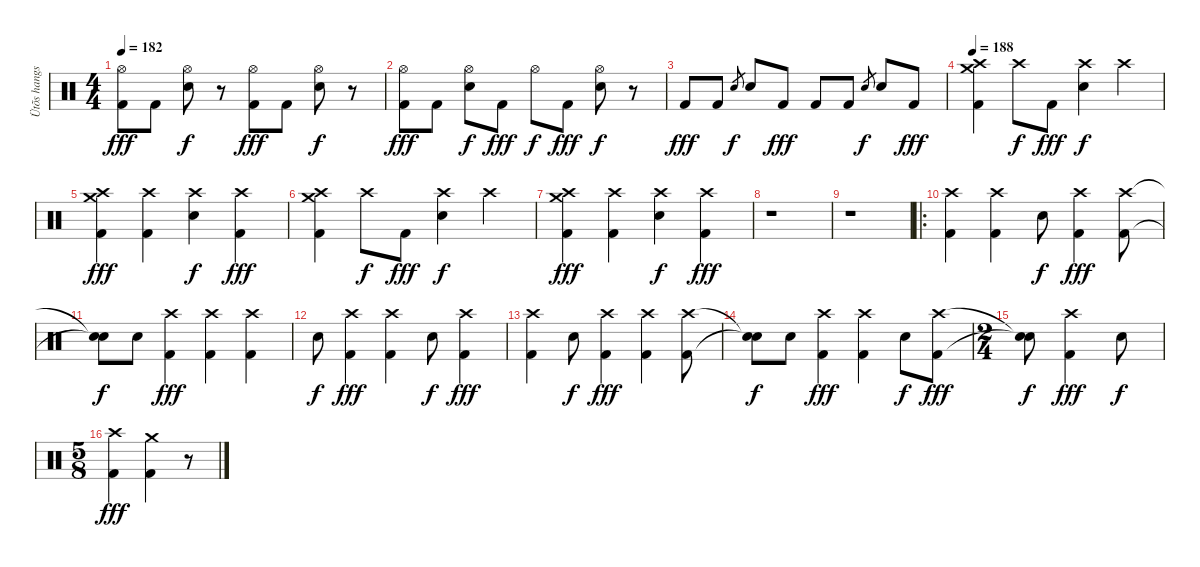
\track ("Ütõs hangszer" "Ütõs hangs") {instrument percussion}
\staff {score}
\articulation defaults
\ts (4 4)
\tempo 182
\clef neutral
\ks c
("Hi-Hat (open)" "Kick (hit) 2").8{dy fff} "Kick (hit) 2".8 ("Hi-Hat (open)" "Electric Snare (hit)").8{dy f} r.8 ("Hi-Hat (open)" "Kick (hit) 2").8{dy fff} "Kick (hit) 2".8 ("Hi-Hat (open)" "Electric Snare (hit)").8{dy f} r.8 |
("Hi-Hat (open)" "Kick (hit) 2").8{dy fff} "Kick (hit) 2".8 ("Hi-Hat (open)" "Electric Snare (hit)").8{dy f} "Kick (hit) 2".8{dy fff} "Hi-Hat (open)".8{dy f} "Kick (hit) 2".8{dy fff} ("Hi-Hat (open)" "Electric Snare (hit)").8{dy f} r.8 |
"Kick (hit) 2".8{dy fff} "Kick (hit) 2".8 "Electric Snare (hit)".8{gr dy f} "Electric Snare (hit)".8 "Kick (hit) 2".8{dy fff} "Kick (hit) 2".8 "Kick (hit) 2".8 "Electric Snare (hit)".8{gr dy f} "Electric Snare (hit)".8 "Kick (hit) 2".8{dy fff} |
\tempo 188
("Crash high (hit)" "Crash medium (hit)" "Kick (hit) 2").4 "Crash high (hit)".8{dy f} "Kick (hit) 2".8{dy fff} ("Crash high (hit)" "Electric Snare (hit)").4{dy f} "Crash high (hit)".4 |
("Crash high (hit)" "Crash medium (hit)" "Kick (hit) 2").4{dy fff} ("Crash high (hit)" "Kick (hit) 2").4 ("Crash high (hit)" "Electric Snare (hit)").4{dy f} ("Crash high (hit)" "Kick (hit) 2").4{dy fff} |
("Crash high (hit)" "Crash medium (hit)" "Kick (hit) 2").4 "Crash high (hit)".8{dy f} "Kick (hit) 2".8{dy fff} ("Crash high (hit)" "Electric Snare (hit)").4{dy f} "Crash high (hit)".4 |
("Crash high (hit)" "Crash medium (hit)" "Kick (hit) 2").4{dy fff} ("Crash high (hit)" "Kick (hit) 2").4 ("Crash high (hit)" "Electric Snare (hit)").4{dy f} ("Crash high (hit)" "Kick (hit) 2").4{dy fff} |
r.1 |
r.1 |
\ro
("Crash high (hit)" "Kick (hit) 2").4 ("Crash high (hit)" "Kick (hit) 2").4 "Electric Snare (hit)".8{dy f} ("Crash high (hit)" "Kick (hit) 2").4{dy fff} ("Crash high (hit)" "Kick (hit) 2").8 |
("Snare (hit)"{t} "Snare (hit)"{t}).8{dy f} "Electric Snare (hit)".8 ("Crash high (hit)" "Kick (hit) 2").4{dy fff} ("Crash high (hit)" "Kick (hit) 2").4 ("Crash high (hit)" "Kick (hit) 2").4 |
"Electric Snare (hit)".8{dy f} ("Crash high (hit)" "Kick (hit) 2").4{dy fff} ("Crash high (hit)" "Kick (hit) 2").4 "Electric Snare (hit)".8{dy f} ("Crash high (hit)" "Kick (hit) 2").4{dy fff} |
("Crash high (hit)" "Kick (hit) 2").4 "Electric Snare (hit)".8{dy f} ("Crash high (hit)" "Kick (hit) 2").4{dy fff} ("Crash high (hit)" "Kick (hit) 2").4 ("Crash high (hit)" "Kick (hit) 2").8 |
("Snare (hit)"{t} "Snare (hit)"{t}).8{dy f} "Electric Snare (hit)".8 ("Crash high (hit)" "Kick (hit) 2").4{dy fff} ("Crash high (hit)" "Kick (hit) 2").4 "Electric Snare (hit)".8{dy f} ("Crash high (hit)" "Kick (hit) 2").8{dy fff} |
\ts (2 4)
("Snare (hit)"{t} "Snare (hit)"{t}).8{dy f} ("Crash high (hit)" "Kick (hit) 2").4{dy fff} "Electric Snare (hit)".8{dy f} |
\ts (5 8)
("Crash high (hit)" "Kick (hit) 2").4{dy fff} ("Crash medium (hit)" "Kick (hit) 2").4 r.8
